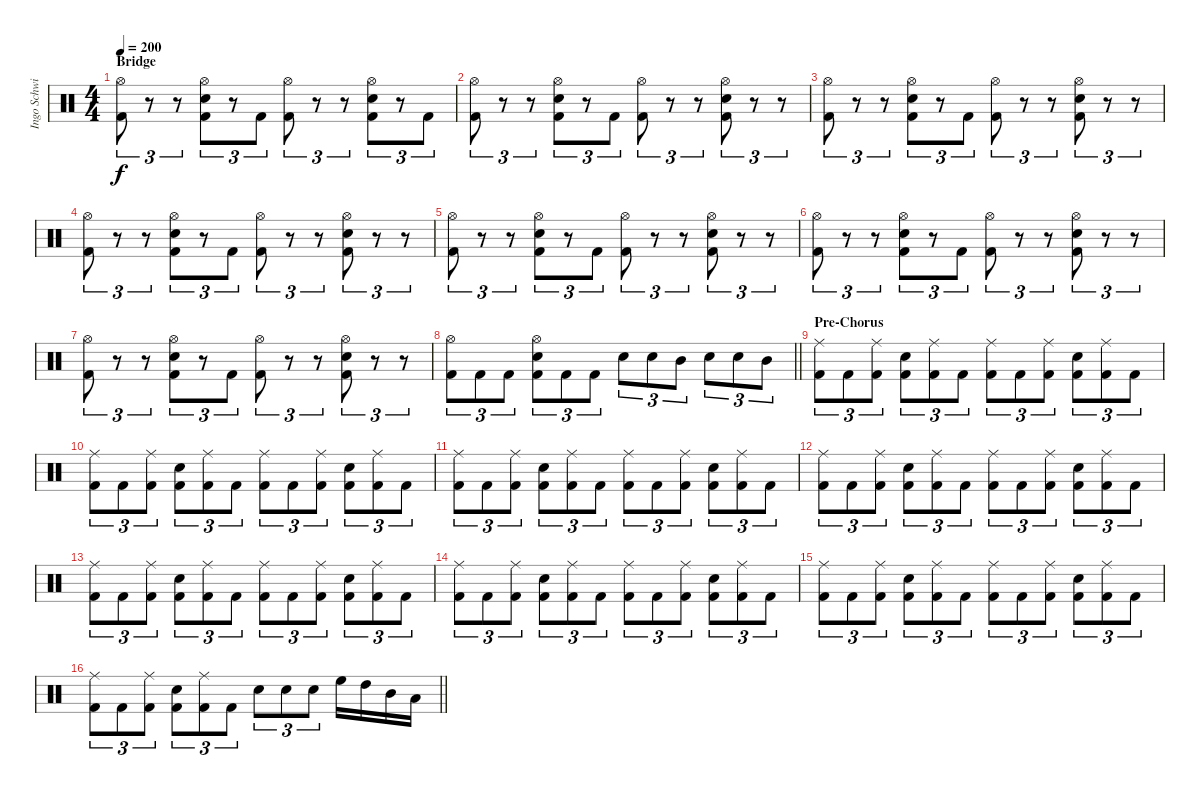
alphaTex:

\track ("Ingo Schwichtenberg" "Ingo Schwi") {instrument percussion}
\staff {score}
\articulation defaults
\ts (4 4)
\section ("" "Bridge")
\tempo 200
\clef neutral
\ks c
("Hi-Hat (open)" "Kick (hit) 2").8{tu (3 2) dy f} r.8{tu (3 2)} r.8{tu (3 2)} ("Hi-Hat (open)" "Snare (hit) 2" "Kick (hit) 2").8{tu (3 2)} r.8{tu (3 2)} "Kick (hit) 2".8{tu (3 2)} ("Hi-Hat (open)" "Kick (hit) 2").8{tu (3 2)} r.8{tu (3 2)} r.8{tu (3 2)} ("Hi-Hat (open)" "Snare (hit) 2" "Kick (hit) 2").8{tu (3 2)} r.8{tu (3 2)} "Kick (hit) 2".8{tu (3 2)} |
("Hi-Hat (open)" "Kick (hit) 2").8{tu (3 2)} r.8{tu (3 2)} r.8{tu (3 2)} ("Hi-Hat (open)" "Snare (hit) 2" "Kick (hit) 2").8{tu (3 2)} r.8{tu (3 2)} "Kick (hit) 2".8{tu (3 2)} ("Hi-Hat (open)" "Kick (hit) 2").8{tu (3 2)} r.8{tu (3 2)} r.8{tu (3 2)} ("Hi-Hat (open)" "Snare (hit) 2" "Kick (hit) 2").8{tu (3 2)} r.8{tu (3 2)} r.8{tu (3 2)} |
("Hi-Hat (open)" "Kick (hit) 2").8{tu (3 2)} r.8{tu (3 2)} r.8{tu (3 2)} ("Hi-Hat (open)" "Snare (hit) 2" "Kick (hit) 2").8{tu (3 2)} r.8{tu (3 2)} "Kick (hit) 2".8{tu (3 2)} ("Hi-Hat (open)" "Kick (hit) 2").8{tu (3 2)} r.8{tu (3 2)} r.8{tu (3 2)} ("Hi-Hat (open)" "Snare (hit) 2" "Kick (hit) 2").8{tu (3 2)} r.8{tu (3 2)} r.8{tu (3 2)} |
("Hi-Hat (open)" "Kick (hit) 2").8{tu (3 2)} r.8{tu (3 2)} r.8{tu (3 2)} ("Hi-Hat (open)" "Snare (hit) 2" "Kick (hit) 2").8{tu (3 2)} r.8{tu (3 2)} "Kick (hit) 2".8{tu (3 2)} ("Hi-Hat (open)" "Kick (hit) 2").8{tu (3 2)} r.8{tu (3 2)} r.8{tu (3 2)} ("Hi-Hat (open)" "Snare (hit) 2" "Kick (hit) 2").8{tu (3 2)} r.8{tu (3 2)} r.8{tu (3 2)} |
("Hi-Hat (open)" "Kick (hit) 2").8{tu (3 2)} r.8{tu (3 2)} r.8{tu (3 2)} ("Hi-Hat (open)" "Snare (hit) 2" "Kick (hit) 2").8{tu (3 2)} r.8{tu (3 2)} "Kick (hit) 2".8{tu (3 2)} ("Hi-Hat (open)" "Kick (hit) 2").8{tu (3 2)} r.8{tu (3 2)} r.8{tu (3 2)} ("Hi-Hat (open)" "Snare (hit) 2" "Kick (hit) 2").8{tu (3 2)} r.8{tu (3 2)} r.8{tu (3 2)} |
("Hi-Hat (open)" "Kick (hit) 2").8{tu (3 2)} r.8{tu (3 2)} r.8{tu (3 2)} ("Hi-Hat (open)" "Snare (hit) 2" "Kick (hit) 2").8{tu (3 2)} r.8{tu (3 2)} "Kick (hit) 2".8{tu (3 2)} ("Hi-Hat (open)" "Kick (hit) 2").8{tu (3 2)} r.8{tu (3 2)} r.8{tu (3 2)} ("Hi-Hat (open)" "Snare (hit) 2" "Kick (hit) 2").8{tu (3 2)} r.8{tu (3 2)} r.8{tu (3 2)} |
("Hi-Hat (open)" "Kick (hit) 2").8{tu (3 2)} r.8{tu (3 2)} r.8{tu (3 2)} ("Hi-Hat (open)" "Snare (hit) 2" "Kick (hit) 2").8{tu (3 2)} r.8{tu (3 2)} "Kick (hit) 2".8{tu (3 2)} ("Hi-Hat (open)" "Kick (hit) 2").8{tu (3 2)} r.8{tu (3 2)} r.8{tu (3 2)} ("Hi-Hat (open)" "Snare (hit) 2" "Kick (hit) 2").8{tu (3 2)} r.8{tu (3 2)} r.8{tu (3 2)} |
\barLineRight lightlight
("Hi-Hat (open)" "Kick (hit) 2").8{tu (3 2)} "Kick (hit) 2".8{tu (3 2)} "Kick (hit) 2".8{tu (3 2)} ("Hi-Hat (open)" "Snare (hit) 2" "Kick (hit) 2").8{tu (3 2)} "Kick (hit) 2".8{tu (3 2)} "Kick (hit) 2".8{tu (3 2)} "Snare (hit) 2".8{tu (3 2)} "Snare (hit) 2".8{tu (3 2)} "Mid Tom (hit)".8{tu (3 2)} "Snare (hit) 2".8{tu (3 2)} "Snare (hit) 2".8{tu (3 2)} "Mid Tom (hit)".8{tu (3 2)} |
\section ("" "Pre-Chorus")
("Ride (middle)" "Kick (hit) 2").8{tu (3 2)} "Kick (hit) 2".8{tu (3 2)} ("Ride (middle)" "Kick (hit) 2").8{tu (3 2)} ("Snare (hit) 2" "Kick (hit) 2").8{tu (3 2)} ("Ride (middle)" "Kick (hit) 2").8{tu (3 2)} "Kick (hit) 2".8{tu (3 2)} ("Ride (middle)" "Kick (hit) 2").8{tu (3 2)} "Kick (hit) 2".8{tu (3 2)} ("Ride (middle)" "Kick (hit) 2").8{tu (3 2)} ("Snare (hit) 2" "Kick (hit) 2").8{tu (3 2)} ("Ride (middle)" "Kick (hit) 2").8{tu (3 2)} "Kick (hit) 2".8{tu (3 2)} |
("Ride (middle)" "Kick (hit) 2").8{tu (3 2)} "Kick (hit) 2".8{tu (3 2)} ("Ride (middle)" "Kick (hit) 2").8{tu (3 2)} ("Snare (hit) 2" "Kick (hit) 2").8{tu (3 2)} ("Ride (middle)" "Kick (hit) 2").8{tu (3 2)} "Kick (hit) 2".8{tu (3 2)} ("Ride (middle)" "Kick (hit) 2").8{tu (3 2)} "Kick (hit) 2".8{tu (3 2)} ("Ride (middle)" "Kick (hit) 2").8{tu (3 2)} ("Snare (hit) 2" "Kick (hit) 2").8{tu (3 2)} ("Ride (middle)" "Kick (hit) 2").8{tu (3 2)} "Kick (hit) 2".8{tu (3 2)} |
("Ride (middle)" "Kick (hit) 2").8{tu (3 2)} "Kick (hit) 2".8{tu (3 2)} ("Ride (middle)" "Kick (hit) 2").8{tu (3 2)} ("Snare (hit) 2" "Kick (hit) 2").8{tu (3 2)} ("Ride (middle)" "Kick (hit) 2").8{tu (3 2)} "Kick (hit) 2".8{tu (3 2)} ("Ride (middle)" "Kick (hit) 2").8{tu (3 2)} "Kick (hit) 2".8{tu (3 2)} ("Ride (middle)" "Kick (hit) 2").8{tu (3 2)} ("Snare (hit) 2" "Kick (hit) 2").8{tu (3 2)} ("Ride (middle)" "Kick (hit) 2").8{tu (3 2)} "Kick (hit) 2".8{tu (3 2)} |
("Ride (middle)" "Kick (hit) 2").8{tu (3 2)} "Kick (hit) 2".8{tu (3 2)} ("Ride (middle)" "Kick (hit) 2").8{tu (3 2)} ("Snare (hit) 2" "Kick (hit) 2").8{tu (3 2)} ("Ride (middle)" "Kick (hit) 2").8{tu (3 2)} "Kick (hit) 2".8{tu (3 2)} ("Ride (middle)" "Kick (hit) 2").8{tu (3 2)} "Kick (hit) 2".8{tu (3 2)} ("Ride (middle)" "Kick (hit) 2").8{tu (3 2)} ("Snare (hit) 2" "Kick (hit) 2").8{tu (3 2)} ("Ride (middle)" "Kick (hit) 2").8{tu (3 2)} "Kick (hit) 2".8{tu (3 2)} |
("Ride (middle)" "Kick (hit) 2").8{tu (3 2)} "Kick (hit) 2".8{tu (3 2)} ("Ride (middle)" "Kick (hit) 2").8{tu (3 2)} ("Snare (hit) 2" "Kick (hit) 2").8{tu (3 2)} ("Ride (middle)" "Kick (hit) 2").8{tu (3 2)} "Kick (hit) 2".8{tu (3 2)} ("Ride (middle)" "Kick (hit) 2").8{tu (3 2)} "Kick (hit) 2".8{tu (3 2)} ("Ride (middle)" "Kick (hit) 2").8{tu (3 2)} ("Snare (hit) 2" "Kick (hit) 2").8{tu (3 2)} ("Ride (middle)" "Kick (hit) 2").8{tu (3 2)} "Kick (hit) 2".8{tu (3 2)} |
("Ride (middle)" "Kick (hit) 2").8{tu (3 2)} "Kick (hit) 2".8{tu (3 2)} ("Ride (middle)" "Kick (hit) 2").8{tu (3 2)} ("Snare (hit) 2" "Kick (hit) 2").8{tu (3 2)} ("Ride (middle)" "Kick (hit) 2").8{tu (3 2)} "Kick (hit) 2".8{tu (3 2)} ("Ride (middle)" "Kick (hit) 2").8{tu (3 2)} "Kick (hit) 2".8{tu (3 2)} ("Ride (middle)" "Kick (hit) 2").8{tu (3 2)} ("Snare (hit) 2" "Kick (hit) 2").8{tu (3 2)} ("Ride (middle)" "Kick (hit) 2").8{tu (3 2)} "Kick (hit) 2".8{tu (3 2)} |
("Ride (middle)" "Kick (hit) 2").8{tu (3 2)} "Kick (hit) 2".8{tu (3 2)} ("Ride (middle)" "Kick (hit) 2").8{tu (3 2)} ("Snare (hit) 2" "Kick (hit) 2").8{tu (3 2)} ("Ride (middle)" "Kick (hit) 2").8{tu (3 2)} "Kick (hit) 2".8{tu (3 2)} ("Ride (middle)" "Kick (hit) 2").8{tu (3 2)} "Kick (hit) 2".8{tu (3 2)} ("Ride (middle)" "Kick (hit) 2").8{tu (3 2)} ("Snare (hit) 2" "Kick (hit) 2").8{tu (3 2)} ("Ride (middle)" "Kick (hit) 2").8{tu (3 2)} "Kick (hit) 2".8{tu (3 2)} |
\barLineRight lightlight
("Ride (middle)" "Kick (hit) 2").8{tu (3 2)} "Kick (hit) 2".8{tu (3 2)} ("Ride (middle)" "Kick (hit) 2").8{tu (3 2)} ("Snare (hit) 2" "Kick (hit) 2").8{tu (3 2)} ("Ride (middle)" "Kick (hit) 2").8{tu (3 2)} "Kick (hit) 2".8{tu (3 2)} "Snare (hit) 2".8{tu (3 2)} "Snare (hit) 2".8{tu (3 2)} "Snare (hit) 2".8{tu (3 2)} "High Floor Tom (hit)".16 "High Tom (hit)".16 "Mid Tom (hit)".16 "Low Tom (hit)".16
